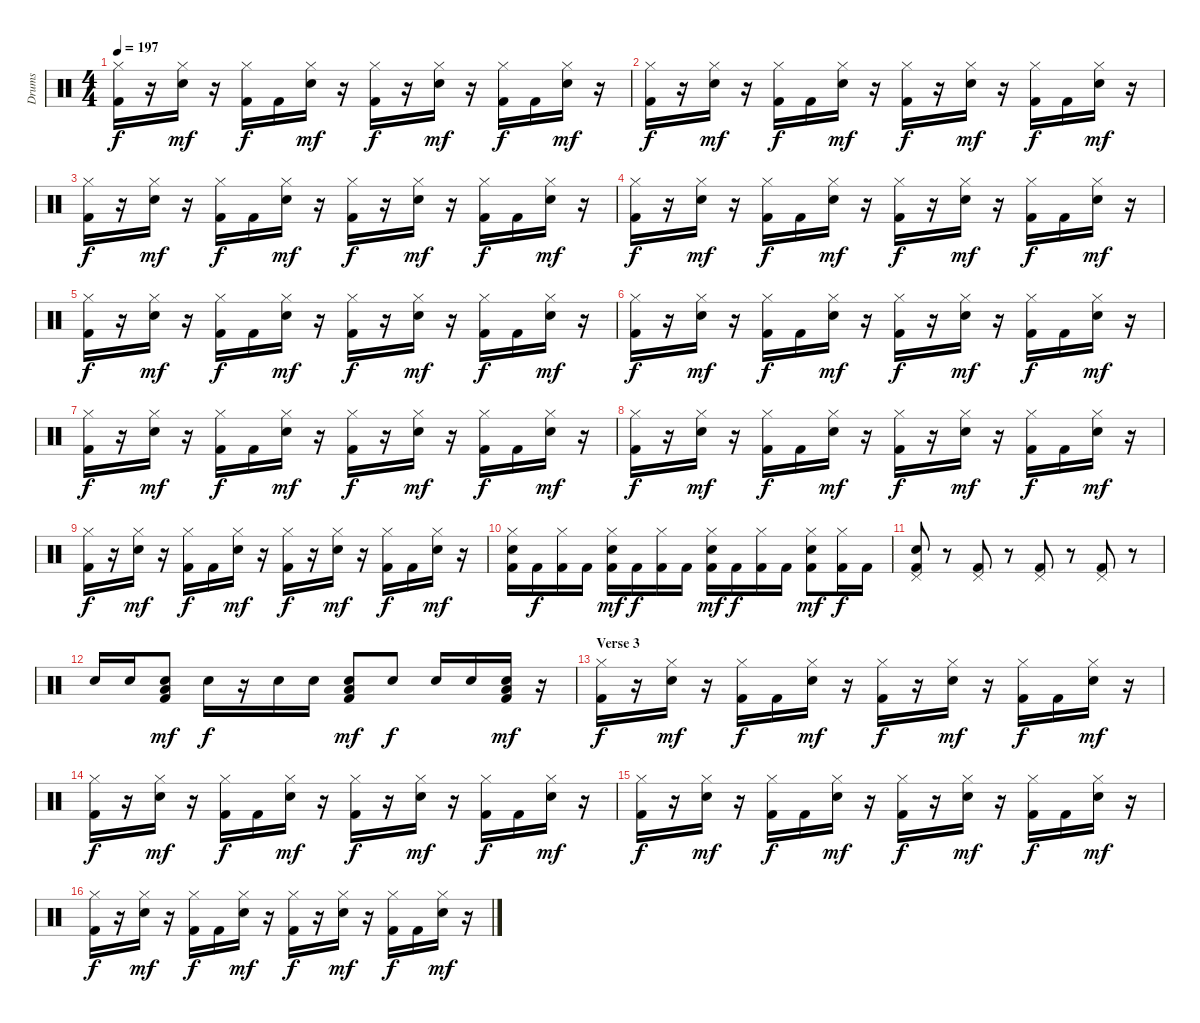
\track ("Drums" "Drums") {instrument percussion}
\staff {score}
\articulation defaults
\ts (4 4)
\tempo 197
\clef neutral
\ks c
("Kick (hit) 2" "Hi-Hat (closed)").16{dy f} r.16 ("Snare (hit) 2" "Hi-Hat (closed)").16{dy mf} r.16 ("Kick (hit) 2" "Hi-Hat (closed)").16{dy f} "Kick (hit) 2".16 ("Snare (hit) 2" "Hi-Hat (closed)").16{dy mf} r.16 ("Kick (hit) 2" "Hi-Hat (closed)").16{dy f} r.16 ("Snare (hit) 2" "Hi-Hat (closed)").16{dy mf} r.16 ("Kick (hit) 2" "Hi-Hat (closed)").16{dy f} "Kick (hit) 2".16 ("Snare (hit) 2" "Hi-Hat (closed)").16{dy mf} r.16 |
("Kick (hit) 2" "Hi-Hat (closed)").16{dy f} r.16 ("Snare (hit) 2" "Hi-Hat (closed)").16{dy mf} r.16 ("Kick (hit) 2" "Hi-Hat (closed)").16{dy f} "Kick (hit) 2".16 ("Snare (hit) 2" "Hi-Hat (closed)").16{dy mf} r.16 ("Kick (hit) 2" "Hi-Hat (closed)").16{dy f} r.16 ("Snare (hit) 2" "Hi-Hat (closed)").16{dy mf} r.16 ("Kick (hit) 2" "Hi-Hat (closed)").16{dy f} "Kick (hit) 2".16 ("Snare (hit) 2" "Hi-Hat (closed)").16{dy mf} r.16 |
("Kick (hit) 2" "Hi-Hat (closed)").16{dy f} r.16 ("Snare (hit) 2" "Hi-Hat (closed)").16{dy mf} r.16 ("Kick (hit) 2" "Hi-Hat (closed)").16{dy f} "Kick (hit) 2".16 ("Snare (hit) 2" "Hi-Hat (closed)").16{dy mf} r.16 ("Kick (hit) 2" "Hi-Hat (closed)").16{dy f} r.16 ("Snare (hit) 2" "Hi-Hat (closed)").16{dy mf} r.16 ("Kick (hit) 2" "Hi-Hat (closed)").16{dy f} "Kick (hit) 2".16 ("Snare (hit) 2" "Hi-Hat (closed)").16{dy mf} r.16 |
("Kick (hit) 2" "Hi-Hat (closed)").16{dy f} r.16 ("Snare (hit) 2" "Hi-Hat (closed)").16{dy mf} r.16 ("Kick (hit) 2" "Hi-Hat (closed)").16{dy f} "Kick (hit) 2".16 ("Snare (hit) 2" "Hi-Hat (closed)").16{dy mf} r.16 ("Kick (hit) 2" "Hi-Hat (closed)").16{dy f} r.16 ("Snare (hit) 2" "Hi-Hat (closed)").16{dy mf} r.16 ("Kick (hit) 2" "Hi-Hat (closed)").16{dy f} "Kick (hit) 2".16 ("Snare (hit) 2" "Hi-Hat (closed)").16{dy mf} r.16 |
("Kick (hit) 2" "Hi-Hat (closed)").16{dy f} r.16 ("Snare (hit) 2" "Hi-Hat (closed)").16{dy mf} r.16 ("Kick (hit) 2" "Hi-Hat (closed)").16{dy f} "Kick (hit) 2".16 ("Snare (hit) 2" "Hi-Hat (closed)").16{dy mf} r.16 ("Kick (hit) 2" "Hi-Hat (closed)").16{dy f} r.16 ("Snare (hit) 2" "Hi-Hat (closed)").16{dy mf} r.16 ("Kick (hit) 2" "Hi-Hat (closed)").16{dy f} "Kick (hit) 2".16 ("Snare (hit) 2" "Hi-Hat (closed)").16{dy mf} r.16 |
("Kick (hit) 2" "Hi-Hat (closed)").16{dy f} r.16 ("Snare (hit) 2" "Hi-Hat (closed)").16{dy mf} r.16 ("Kick (hit) 2" "Hi-Hat (closed)").16{dy f} "Kick (hit) 2".16 ("Snare (hit) 2" "Hi-Hat (closed)").16{dy mf} r.16 ("Kick (hit) 2" "Hi-Hat (closed)").16{dy f} r.16 ("Snare (hit) 2" "Hi-Hat (closed)").16{dy mf} r.16 ("Kick (hit) 2" "Hi-Hat (closed)").16{dy f} "Kick (hit) 2".16 ("Snare (hit) 2" "Hi-Hat (closed)").16{dy mf} r.16 |
("Kick (hit) 2" "Hi-Hat (closed)").16{dy f} r.16 ("Snare (hit) 2" "Hi-Hat (closed)").16{dy mf} r.16 ("Kick (hit) 2" "Hi-Hat (closed)").16{dy f} "Kick (hit) 2".16 ("Snare (hit) 2" "Hi-Hat (closed)").16{dy mf} r.16 ("Kick (hit) 2" "Hi-Hat (closed)").16{dy f} r.16 ("Snare (hit) 2" "Hi-Hat (closed)").16{dy mf} r.16 ("Kick (hit) 2" "Hi-Hat (closed)").16{dy f} "Kick (hit) 2".16 ("Snare (hit) 2" "Hi-Hat (closed)").16{dy mf} r.16 |
("Kick (hit) 2" "Hi-Hat (closed)").16{dy f} r.16 ("Snare (hit) 2" "Hi-Hat (closed)").16{dy mf} r.16 ("Kick (hit) 2" "Hi-Hat (closed)").16{dy f} "Kick (hit) 2".16 ("Snare (hit) 2" "Hi-Hat (closed)").16{dy mf} r.16 ("Kick (hit) 2" "Hi-Hat (closed)").16{dy f} r.16 ("Snare (hit) 2" "Hi-Hat (closed)").16{dy mf} r.16 ("Kick (hit) 2" "Hi-Hat (closed)").16{dy f} "Kick (hit) 2".16 ("Snare (hit) 2" "Hi-Hat (closed)").16{dy mf} r.16 |
("Kick (hit) 2" "Hi-Hat (closed)").16{dy f} r.16 ("Snare (hit) 2" "Hi-Hat (closed)").16{dy mf} r.16 ("Kick (hit) 2" "Hi-Hat (closed)").16{dy f} "Kick (hit) 2".16 ("Snare (hit) 2" "Hi-Hat (closed)").16{dy mf} r.16 ("Kick (hit) 2" "Hi-Hat (closed)").16{dy f} r.16 ("Snare (hit) 2" "Hi-Hat (closed)").16{dy mf} r.16 ("Kick (hit) 2" "Hi-Hat (closed)").16{dy f} "Kick (hit) 2".16 ("Snare (hit) 2" "Hi-Hat (closed)").16{dy mf} r.16 |
("Kick (hit) 2" "Snare (hit) 2" "Hi-Hat (closed)").16 "Kick (hit) 2".16{dy f} ("Kick (hit) 2" "Hi-Hat (closed)").16 "Kick (hit) 2".16 ("Kick (hit) 2" "Snare (hit) 2" "Hi-Hat (closed)").16{dy mf} "Kick (hit) 2".16{dy f} ("Kick (hit) 2" "Hi-Hat (closed)").16 "Kick (hit) 2".16 ("Kick (hit) 2" "Snare (hit) 2" "Hi-Hat (closed)").16{dy mf} "Kick (hit) 2".16{dy f} ("Kick (hit) 2" "Hi-Hat (closed)").16 "Kick (hit) 2".16 ("Kick (hit) 2" "Snare (hit) 2" "Hi-Hat (closed)").8{dy mf} ("Kick (hit) 2" "Hi-Hat (closed)").16{dy f} "Kick (hit) 2".16 |
("Kick (hit) 2" "Snare (hit) 2" "Pedal Hi-Hat (hit)").8 r.8 ("Kick (hit) 2" "Pedal Hi-Hat (hit)").8 r.8 ("Kick (hit) 2" "Pedal Hi-Hat (hit)").8 r.8 ("Kick (hit) 2" "Pedal Hi-Hat (hit)").8 r.8 |
"Snare (hit) 2".16 "Snare (hit) 2".16 ("Kick (hit) 2" "Snare (hit) 2" "Low Floor Tom (hit)").8{dy mf} "Snare (hit) 2".16{dy f} r.16 "Snare (hit) 2".16 "Snare (hit) 2".16 ("Kick (hit) 2" "Snare (hit) 2" "Low Floor Tom (hit)").8{dy mf} "Snare (hit) 2".8{dy f} "Snare (hit) 2".16 "Snare (hit) 2".16 ("Kick (hit) 2" "Snare (hit) 2" "Low Floor Tom (hit)").16{dy mf} r.16 |
\section ("" "Verse 3")
("Kick (hit) 2" "Hi-Hat (closed)").16{dy f} r.16 ("Snare (hit) 2" "Hi-Hat (closed)").16{dy mf} r.16 ("Kick (hit) 2" "Hi-Hat (closed)").16{dy f} "Kick (hit) 2".16 ("Snare (hit) 2" "Hi-Hat (closed)").16{dy mf} r.16 ("Kick (hit) 2" "Hi-Hat (closed)").16{dy f} r.16 ("Snare (hit) 2" "Hi-Hat (closed)").16{dy mf} r.16 ("Kick (hit) 2" "Hi-Hat (closed)").16{dy f} "Kick (hit) 2".16 ("Snare (hit) 2" "Hi-Hat (closed)").16{dy mf} r.16 |
("Kick (hit) 2" "Hi-Hat (closed)").16{dy f} r.16 ("Snare (hit) 2" "Hi-Hat (closed)").16{dy mf} r.16 ("Kick (hit) 2" "Hi-Hat (closed)").16{dy f} "Kick (hit) 2".16 ("Snare (hit) 2" "Hi-Hat (closed)").16{dy mf} r.16 ("Kick (hit) 2" "Hi-Hat (closed)").16{dy f} r.16 ("Snare (hit) 2" "Hi-Hat (closed)").16{dy mf} r.16 ("Kick (hit) 2" "Hi-Hat (closed)").16{dy f} "Kick (hit) 2".16 ("Snare (hit) 2" "Hi-Hat (closed)").16{dy mf} r.16 |
("Kick (hit) 2" "Hi-Hat (closed)").16{dy f} r.16 ("Snare (hit) 2" "Hi-Hat (closed)").16{dy mf} r.16 ("Kick (hit) 2" "Hi-Hat (closed)").16{dy f} "Kick (hit) 2".16 ("Snare (hit) 2" "Hi-Hat (closed)").16{dy mf} r.16 ("Kick (hit) 2" "Hi-Hat (closed)").16{dy f} r.16 ("Snare (hit) 2" "Hi-Hat (closed)").16{dy mf} r.16 ("Kick (hit) 2" "Hi-Hat (closed)").16{dy f} "Kick (hit) 2".16 ("Snare (hit) 2" "Hi-Hat (closed)").16{dy mf} r.16 |
("Kick (hit) 2" "Hi-Hat (closed)").16{dy f} r.16 ("Snare (hit) 2" "Hi-Hat (closed)").16{dy mf} r.16 ("Kick (hit) 2" "Hi-Hat (closed)").16{dy f} "Kick (hit) 2".16 ("Snare (hit) 2" "Hi-Hat (closed)").16{dy mf} r.16 ("Kick (hit) 2" "Hi-Hat (closed)").16{dy f} r.16 ("Snare (hit) 2" "Hi-Hat (closed)").16{dy mf} r.16 ("Kick (hit) 2" "Hi-Hat (closed)").16{dy f} "Kick (hit) 2".16 ("Snare (hit) 2" "Hi-Hat (closed)").16{dy mf} r.16
